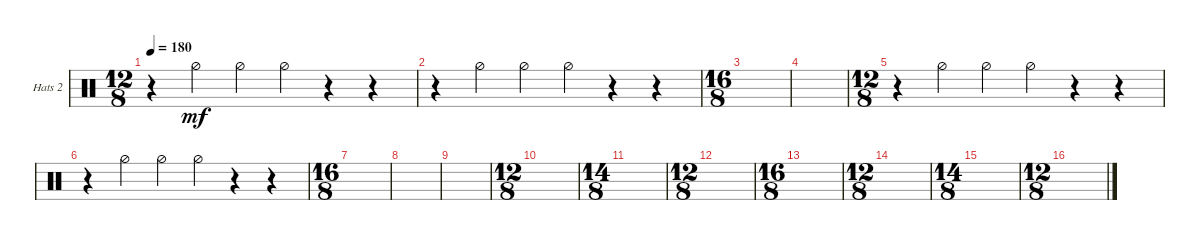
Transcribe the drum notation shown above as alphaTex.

\defaultSystemsLayout 4
\bracketExtendMode groupsimilarinstruments
\firstSystemTrackNameOrientation horizontal
\otherSystemsTrackNameOrientation horizontal
\track ("Hi Hats Open" "Hats 2") {instrument percussion}
\staff {score}
\articulation defaults
\ts (12 8)
\tempo 180
\clef neutral
\scale
0.333333
\ks c
r.4{dy mf} "Hi-Hat (half)".4 "Hi-Hat (half)".4 "Hi-Hat (half)".4 r.4 r.4 |
\scale
0.333333 r.4 "Hi-Hat (half)".4 "Hi-Hat (half)".4 "Hi-Hat (half)".4 r.4 r.4 |
\ts (16 8)
\beaming (8 2 2 2 2 2 2 2 1 1)
\scale
0.333333 |
\scale
0.333333 |
\ts (12 8)
\scale
0.333333 r.4 "Hi-Hat (half)".4 "Hi-Hat (half)".4 "Hi-Hat (half)".4 r.4 r.4 |
\scale
0.333333 r.4 "Hi-Hat (half)".4 "Hi-Hat (half)".4 "Hi-Hat (half)".4 r.4 r.4 |
\ts (16 8)
\scale
0.333333 |
\scale
0.333333 |
\scale
0.333333 |
\ts (12 8)
\scale
0.333333 |
\ts (14 8)
\scale
0.333333 |
\ts (12 8)
\scale
0.333333 |
\ts (16 8)
\scale
0.333333 |
\ts (12 8)
\scale
0.333333 |
\ts (14 8)
\scale
0.333333 |
\ts (12 8)
\scale
0.333333
